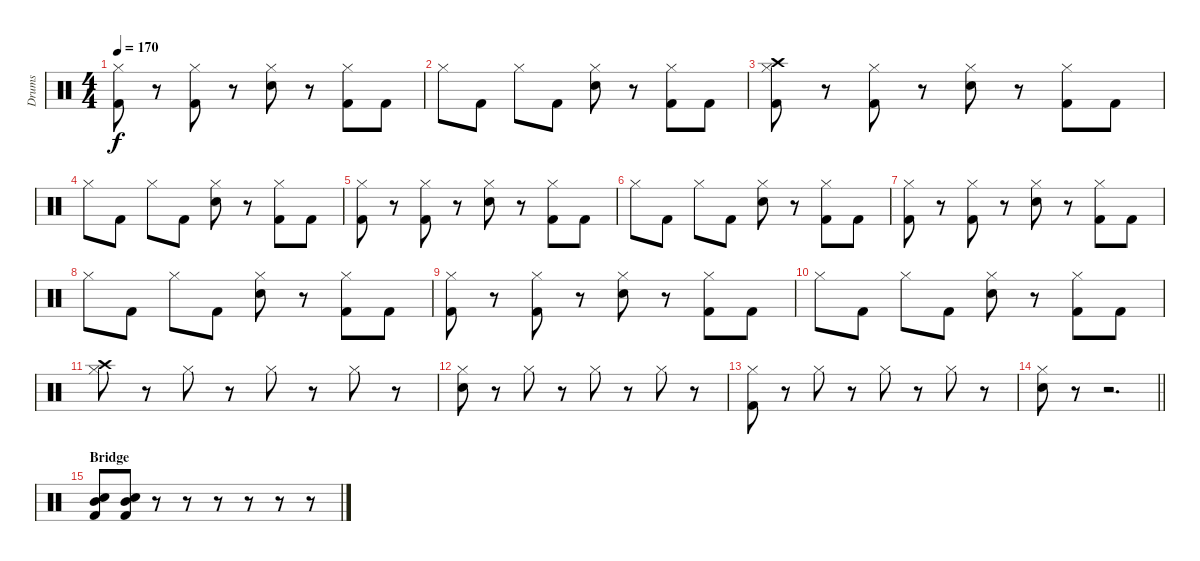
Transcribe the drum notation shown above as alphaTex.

\track ("Drums" "Drums") {instrument percussion}
\staff {score}
\articulation defaults
\ts (4 4)
\tempo 170
\clef neutral
\ks c
("Hi-Hat (closed)" "Kick (hit) 2").8{dy f} r.8 ("Hi-Hat (closed)" "Kick (hit) 2").8 r.8 ("Hi-Hat (closed)" "Electric Snare (hit)").8 r.8 ("Hi-Hat (closed)" "Kick (hit) 2").8 "Kick (hit) 2".8 |
"Hi-Hat (closed)".8 "Kick (hit) 2".8 "Hi-Hat (closed)".8 "Kick (hit) 2".8 ("Hi-Hat (closed)" "Electric Snare (hit)").8 r.8 ("Hi-Hat (closed)" "Kick (hit) 2").8 "Kick (hit) 2".8 |
("Hi-Hat (closed)" "Crash high (hit)" "Kick (hit) 2").8 r.8 ("Hi-Hat (closed)" "Kick (hit) 2").8 r.8 ("Hi-Hat (closed)" "Electric Snare (hit)").8 r.8 ("Hi-Hat (closed)" "Kick (hit) 2").8 "Kick (hit) 2".8 |
"Hi-Hat (closed)".8 "Kick (hit) 2".8 "Hi-Hat (closed)".8 "Kick (hit) 2".8 ("Hi-Hat (closed)" "Electric Snare (hit)").8 r.8 ("Hi-Hat (closed)" "Kick (hit) 2").8 "Kick (hit) 2".8 |
("Hi-Hat (closed)" "Kick (hit) 2").8 r.8 ("Hi-Hat (closed)" "Kick (hit) 2").8 r.8 ("Hi-Hat (closed)" "Electric Snare (hit)").8 r.8 ("Hi-Hat (closed)" "Kick (hit) 2").8 "Kick (hit) 2".8 |
"Hi-Hat (closed)".8 "Kick (hit) 2".8 "Hi-Hat (closed)".8 "Kick (hit) 2".8 ("Hi-Hat (closed)" "Electric Snare (hit)").8 r.8 ("Hi-Hat (closed)" "Kick (hit) 2").8 "Kick (hit) 2".8 |
("Hi-Hat (closed)" "Kick (hit) 2").8 r.8 ("Hi-Hat (closed)" "Kick (hit) 2").8 r.8 ("Hi-Hat (closed)" "Electric Snare (hit)").8 r.8 ("Hi-Hat (closed)" "Kick (hit) 2").8 "Kick (hit) 2".8 |
"Hi-Hat (closed)".8 "Kick (hit) 2".8 "Hi-Hat (closed)".8 "Kick (hit) 2".8 ("Hi-Hat (closed)" "Electric Snare (hit)").8 r.8 ("Hi-Hat (closed)" "Kick (hit) 2").8 "Kick (hit) 2".8 |
("Hi-Hat (closed)" "Kick (hit) 2").8 r.8 ("Hi-Hat (closed)" "Kick (hit) 2").8 r.8 ("Hi-Hat (closed)" "Electric Snare (hit)").8 r.8 ("Hi-Hat (closed)" "Kick (hit) 2").8 "Kick (hit) 2".8 |
"Hi-Hat (closed)".8 "Kick (hit) 2".8 "Hi-Hat (closed)".8 "Kick (hit) 2".8 ("Hi-Hat (closed)" "Electric Snare (hit)").8 r.8 ("Hi-Hat (closed)" "Kick (hit) 2").8 "Kick (hit) 2".8 |
("Crash high (hit)" "Hi-Hat (closed)").8 r.8 "Hi-Hat (closed)".8 r.8 "Hi-Hat (closed)".8 r.8 "Hi-Hat (closed)".8 r.8 |
("Electric Snare (hit)" "Hi-Hat (closed)").8 r.8 "Hi-Hat (closed)".8 r.8 "Hi-Hat (closed)".8 r.8 "Hi-Hat (closed)".8 r.8 |
("Kick (hit) 2" "Hi-Hat (closed)").8 r.8 "Hi-Hat (closed)".8 r.8 "Hi-Hat (closed)".8 r.8 "Hi-Hat (closed)".8 r.8 |
\barLineRight lightlight
("Electric Snare (hit)" "Hi-Hat (closed)").8 r.8 r.2{d} |
\section ("" "Bridge")
("Electric Snare (hit)" "Kick (hit) 2" "Mid Tom (hit)").8 ("Electric Snare (hit)" "Kick (hit) 2" "Mid Tom (hit)").8 r.8 r.8 r.8 r.8 r.8 r.8
